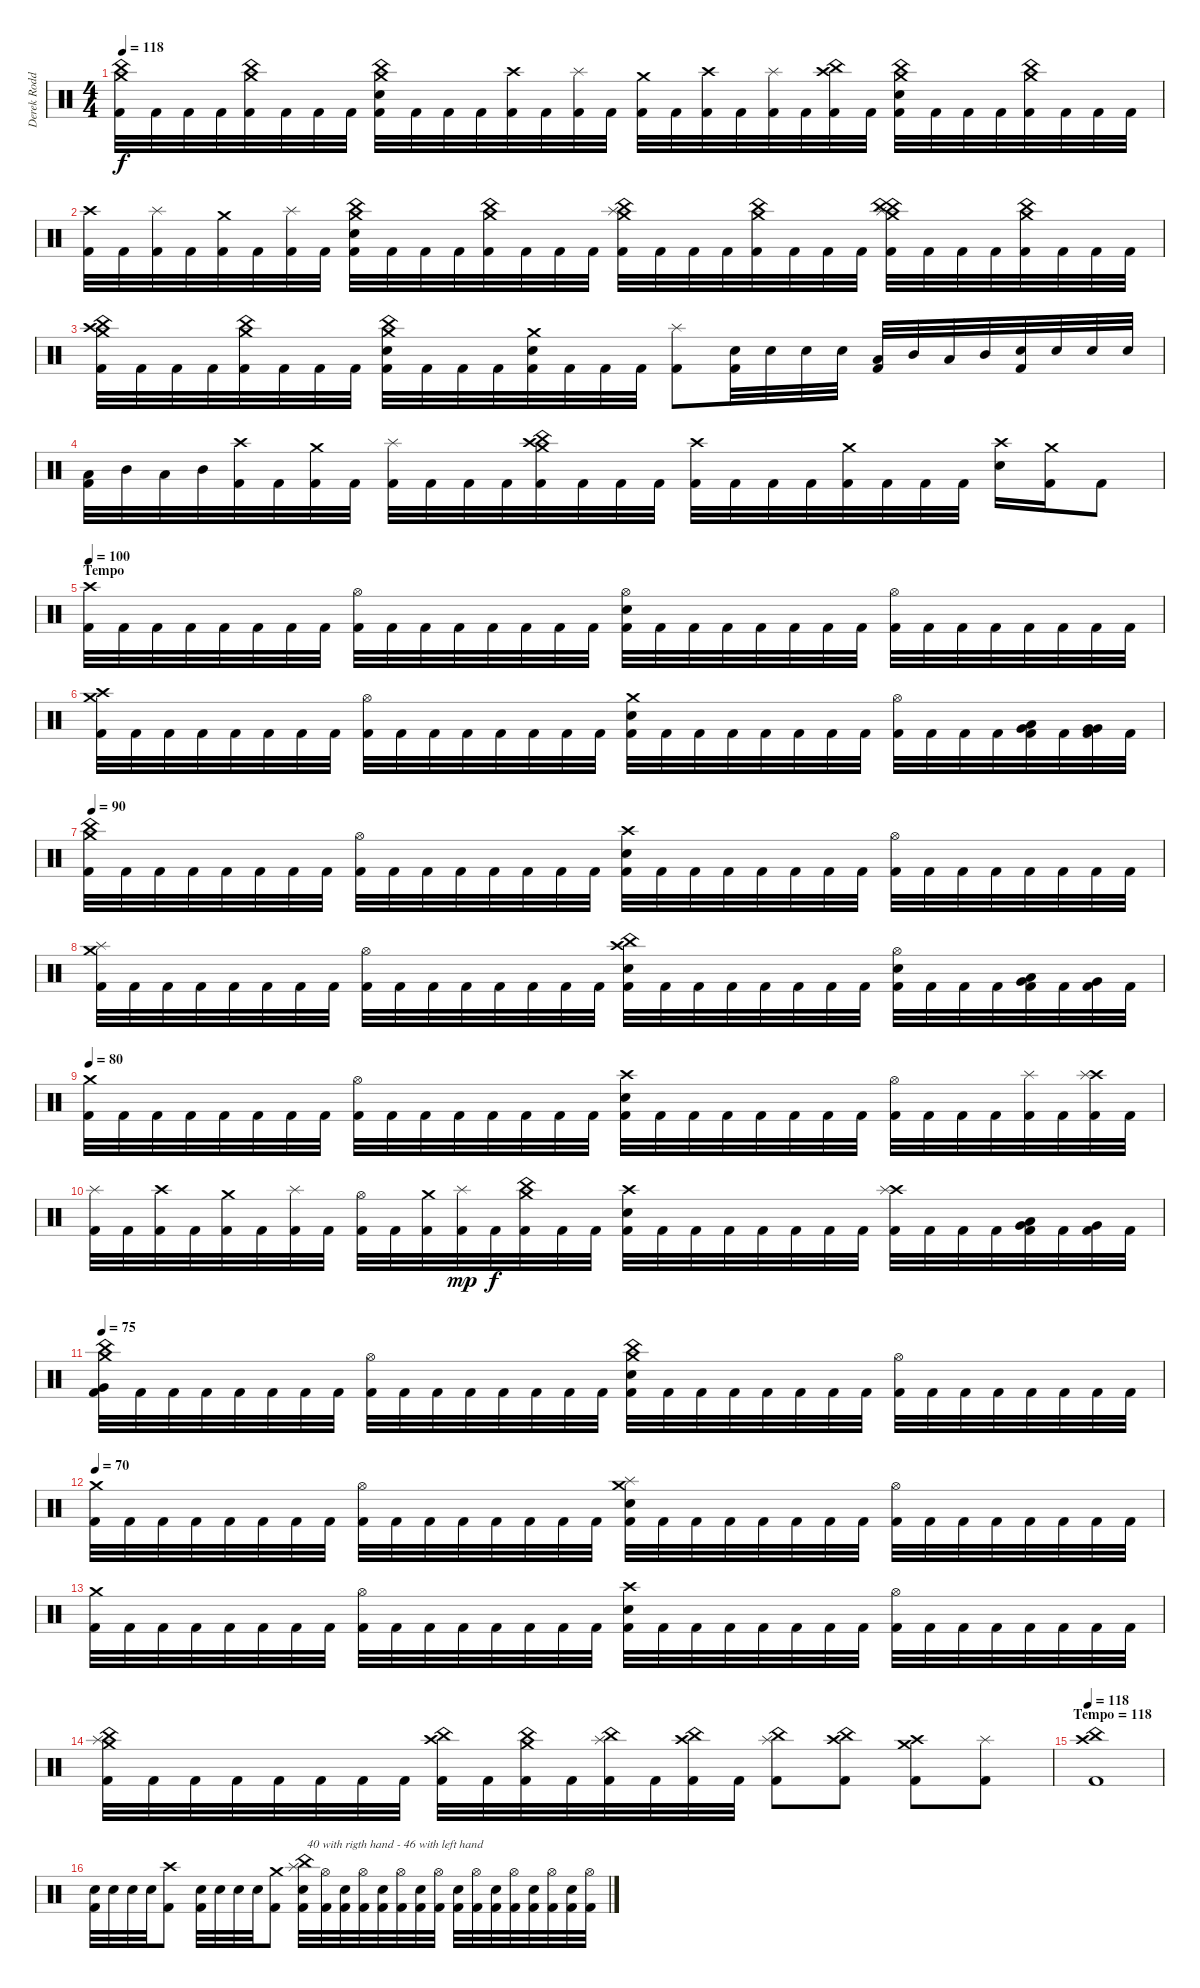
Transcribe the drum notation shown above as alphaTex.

\track ("Derek Roddy" "Derek Rodd") {instrument percussion}
\staff {score}
\articulation defaults
\ts (4 4)
\tempo 118
\clef neutral
\ks c
("Crash medium (hit)" "China (hit)" "Kick (hit) 2").32{dy f} "Kick (hit) 2".32 "Kick (hit) 2".32 "Kick (hit) 2".32 ("Crash medium (hit)" "China (hit)" "Kick (hit) 2").32 "Kick (hit) 2".32 "Kick (hit) 2".32 "Kick (hit) 2".32 ("Crash medium (hit)" "China (hit)" "Electric Snare (hit)" "Kick (hit) 2").32 "Kick (hit) 2".32 "Kick (hit) 2".32 "Kick (hit) 2".32 ("Crash high (hit)" "Kick (hit) 2").32 "Kick (hit) 2".32 ("Splash (hit)" "Kick (hit) 2").32 "Kick (hit) 2".32 ("Crash medium (hit)" "Kick (hit) 2").32 "Kick (hit) 2".32 ("Crash high (hit)" "Kick (hit) 2").32 "Kick (hit) 2".32 ("Splash (hit)" "Kick (hit) 2").32 "Kick (hit) 2".32 ("Crash high (hit)" "China (hit)" "Kick (hit) 2").32 "Kick (hit) 2".32 ("Crash medium (hit)" "China (hit)" "Electric Snare (hit)" "Kick (hit) 2").32 "Kick (hit) 2".32 "Kick (hit) 2".32 "Kick (hit) 2".32 ("Crash medium (hit)" "China (hit)" "Kick (hit) 2").32 "Kick (hit) 2".32 "Kick (hit) 2".32 "Kick (hit) 2".32 |
("Crash high (hit)" "Kick (hit) 2").32 "Kick (hit) 2".32 ("Splash (hit)" "Kick (hit) 2").32 "Kick (hit) 2".32 ("Crash medium (hit)" "Kick (hit) 2").32 "Kick (hit) 2".32 ("Splash (hit)" "Kick (hit) 2").32 "Kick (hit) 2".32 ("Crash medium (hit)" "China (hit)" "Electric Snare (hit)" "Kick (hit) 2").32 "Kick (hit) 2".32 "Kick (hit) 2".32 "Kick (hit) 2".32 ("Crash medium (hit)" "China (hit)" "Kick (hit) 2").32 "Kick (hit) 2".32 "Kick (hit) 2".32 "Kick (hit) 2".32 ("Crash medium (hit)" "China (hit)" "Splash (hit)" "Kick (hit) 2").32 "Kick (hit) 2".32 "Kick (hit) 2".32 "Kick (hit) 2".32 ("Crash medium (hit)" "China (hit)" "Kick (hit) 2").32 "Kick (hit) 2".32 "Kick (hit) 2".32 "Kick (hit) 2".32 ("Crash medium (hit)" "China (hit)" "Splash (hit)" "China (hit)" "Kick (hit) 2").32 "Kick (hit) 2".32 "Kick (hit) 2".32 "Kick (hit) 2".32 ("Crash medium (hit)" "China (hit)" "Kick (hit) 2").32 "Kick (hit) 2".32 "Kick (hit) 2".32 "Kick (hit) 2".32 |
("Crash medium (hit)" "China (hit)" "Crash high (hit)" "Kick (hit) 2").32 "Kick (hit) 2".32 "Kick (hit) 2".32 "Kick (hit) 2".32 ("Crash medium (hit)" "China (hit)" "Kick (hit) 2").32 "Kick (hit) 2".32 "Kick (hit) 2".32 "Kick (hit) 2".32 ("Crash medium (hit)" "China (hit)" "Electric Snare (hit)" "Kick (hit) 2").32 "Kick (hit) 2".32 "Kick (hit) 2".32 "Kick (hit) 2".32 ("Crash medium (hit)" "Electric Snare (hit)" "Kick (hit) 2").32 "Kick (hit) 2".32 "Kick (hit) 2".32 "Kick (hit) 2".32 ("Splash (hit)" "Kick (hit) 2").8 ("Electric Snare (hit)" "Kick (hit) 2").32 "Electric Snare (hit)".32 "Electric Snare (hit)".32 "Electric Snare (hit)".32 ("Low Tom (hit)" "Kick (hit) 2").32 "Mid Tom (hit)".32 "Low Tom (hit)".32 "Mid Tom (hit)".32 ("Electric Snare (hit)" "Kick (hit) 2").32 "Electric Snare (hit)".32 "Electric Snare (hit)".32 "Electric Snare (hit)".32 |
("Low Tom (hit)" "Kick (hit) 2").32 "Mid Tom (hit)".32 "Low Tom (hit)".32 "Mid Tom (hit)".32 ("Crash high (hit)" "Kick (hit) 2").32 "Kick (hit) 2".32 ("Crash medium (hit)" "Kick (hit) 2").32 "Kick (hit) 2".32 ("Splash (hit)" "Kick (hit) 2").32 "Kick (hit) 2".32 "Kick (hit) 2".32 "Kick (hit) 2".32 ("Crash medium (hit)" "China (hit)" "Crash high (hit)" "Kick (hit) 2").32 "Kick (hit) 2".32 "Kick (hit) 2".32 "Kick (hit) 2".32 ("Crash high (hit)" "Kick (hit) 2").32 "Kick (hit) 2".32 "Kick (hit) 2".32 "Kick (hit) 2".32 ("Crash medium (hit)" "Kick (hit) 2").32 "Kick (hit) 2".32 "Kick (hit) 2".32 "Kick (hit) 2".32 ("Crash high (hit)" "Electric Snare (hit)").16 ("Crash medium (hit)" "Kick (hit) 2").16 "Kick (hit) 2".8 |
\section ("" "Tempo")
\tempo 100
("Crash high (hit)" "Kick (hit) 2").32 "Kick (hit) 2".32 "Kick (hit) 2".32 "Kick (hit) 2".32 "Kick (hit) 2".32 "Kick (hit) 2".32 "Kick (hit) 2".32 "Kick (hit) 2".32 ("Hi-Hat (open)" "Kick (hit) 2").32 "Kick (hit) 2".32 "Kick (hit) 2".32 "Kick (hit) 2".32 "Kick (hit) 2".32 "Kick (hit) 2".32 "Kick (hit) 2".32 "Kick (hit) 2".32 ("Hi-Hat (open)" "Electric Snare (hit)" "Kick (hit) 2").32 "Kick (hit) 2".32 "Kick (hit) 2".32 "Kick (hit) 2".32 "Kick (hit) 2".32 "Kick (hit) 2".32 "Kick (hit) 2".32 "Kick (hit) 2".32 ("Hi-Hat (open)" "Kick (hit) 2").32 "Kick (hit) 2".32 "Kick (hit) 2".32 "Kick (hit) 2".32 "Kick (hit) 2".32 "Kick (hit) 2".32 "Kick (hit) 2".32 "Kick (hit) 2".32 |
("Crash high (hit)" "Crash medium (hit)" "Kick (hit) 2").32 "Kick (hit) 2".32 "Kick (hit) 2".32 "Kick (hit) 2".32 "Kick (hit) 2".32 "Kick (hit) 2".32 "Kick (hit) 2".32 "Kick (hit) 2".32 ("Hi-Hat (open)" "Kick (hit) 2").32 "Kick (hit) 2".32 "Kick (hit) 2".32 "Kick (hit) 2".32 "Kick (hit) 2".32 "Kick (hit) 2".32 "Kick (hit) 2".32 "Kick (hit) 2".32 ("Crash medium (hit)" "Electric Snare (hit)" "Kick (hit) 2").32 "Kick (hit) 2".32 "Kick (hit) 2".32 "Kick (hit) 2".32 "Kick (hit) 2".32 "Kick (hit) 2".32 "Kick (hit) 2".32 "Kick (hit) 2".32 ("Hi-Hat (open)" "Kick (hit) 2").32 "Kick (hit) 2".32 "Kick (hit) 2".32 "Kick (hit) 2".32 ("Low Tom (hit)" "Very Low Tom (hit)" "Kick (hit) 2").32 "Kick (hit) 2".32 ("Very Low Tom (hit)" "Very Low Tom (hit)" "Kick (hit) 2").32 "Kick (hit) 2".32 |
\tempo 90
("Crash medium (hit)" "China (hit)" "Kick (hit) 2").32 "Kick (hit) 2".32 "Kick (hit) 2".32 "Kick (hit) 2".32 "Kick (hit) 2".32 "Kick (hit) 2".32 "Kick (hit) 2".32 "Kick (hit) 2".32 ("Hi-Hat (open)" "Kick (hit) 2").32 "Kick (hit) 2".32 "Kick (hit) 2".32 "Kick (hit) 2".32 "Kick (hit) 2".32 "Kick (hit) 2".32 "Kick (hit) 2".32 "Kick (hit) 2".32 ("Crash high (hit)" "Electric Snare (hit)" "Kick (hit) 2").32 "Kick (hit) 2".32 "Kick (hit) 2".32 "Kick (hit) 2".32 "Kick (hit) 2".32 "Kick (hit) 2".32 "Kick (hit) 2".32 "Kick (hit) 2".32 ("Hi-Hat (open)" "Kick (hit) 2").32 "Kick (hit) 2".32 "Kick (hit) 2".32 "Kick (hit) 2".32 "Kick (hit) 2".32 "Kick (hit) 2".32 "Kick (hit) 2".32 "Kick (hit) 2".32 |
("Crash medium (hit)" "Splash (hit)" "Kick (hit) 2").32 "Kick (hit) 2".32 "Kick (hit) 2".32 "Kick (hit) 2".32 "Kick (hit) 2".32 "Kick (hit) 2".32 "Kick (hit) 2".32 "Kick (hit) 2".32 ("Hi-Hat (open)" "Kick (hit) 2").32 "Kick (hit) 2".32 "Kick (hit) 2".32 "Kick (hit) 2".32 "Kick (hit) 2".32 "Kick (hit) 2".32 "Kick (hit) 2".32 "Kick (hit) 2".32 ("Crash high (hit)" "China (hit)" "Electric Snare (hit)" "Kick (hit) 2").32 "Kick (hit) 2".32 "Kick (hit) 2".32 "Kick (hit) 2".32 "Kick (hit) 2".32 "Kick (hit) 2".32 "Kick (hit) 2".32 "Kick (hit) 2".32 ("Hi-Hat (open)" "Electric Snare (hit)" "Kick (hit) 2").32 "Kick (hit) 2".32 "Kick (hit) 2".32 "Kick (hit) 2".32 ("Low Tom (hit)" "Very Low Tom (hit)" "Kick (hit) 2").32 "Kick (hit) 2".32 ("Very Low Tom (hit)" "Kick (hit) 2").32 "Kick (hit) 2".32 |
\tempo 80
("Crash medium (hit)" "Kick (hit) 2").32 "Kick (hit) 2".32 "Kick (hit) 2".32 "Kick (hit) 2".32 "Kick (hit) 2".32 "Kick (hit) 2".32 "Kick (hit) 2".32 "Kick (hit) 2".32 ("Hi-Hat (open)" "Kick (hit) 2").32 "Kick (hit) 2".32 "Kick (hit) 2".32 "Kick (hit) 2".32 "Kick (hit) 2".32 "Kick (hit) 2".32 "Kick (hit) 2".32 "Kick (hit) 2".32 ("Crash high (hit)" "Electric Snare (hit)" "Kick (hit) 2").32 "Kick (hit) 2".32 "Kick (hit) 2".32 "Kick (hit) 2".32 "Kick (hit) 2".32 "Kick (hit) 2".32 "Kick (hit) 2".32 "Kick (hit) 2".32 ("Hi-Hat (open)" "Kick (hit) 2").32 "Kick (hit) 2".32 "Kick (hit) 2".32 "Kick (hit) 2".32 ("Splash (hit)" "Kick (hit) 2").32 "Kick (hit) 2".32 ("Crash high (hit)" "Splash (hit)" "Kick (hit) 2").32 "Kick (hit) 2".32 |
("Splash (hit)" "Kick (hit) 2").32 "Kick (hit) 2".32 ("Crash high (hit)" "Kick (hit) 2").32 "Kick (hit) 2".32 ("Crash medium (hit)" "Kick (hit) 2").32 "Kick (hit) 2".32 ("Splash (hit)" "Kick (hit) 2").32 "Kick (hit) 2".32 ("Hi-Hat (open)" "Kick (hit) 2").32 "Kick (hit) 2".32 ("Crash medium (hit)" "Kick (hit) 2").32 ("Splash (hit)" "Kick (hit) 2").32{dy mp} "Kick (hit) 2".32{dy f} ("Crash medium (hit)" "China (hit)" "Kick (hit) 2").32 "Kick (hit) 2".32 "Kick (hit) 2".32 ("Crash high (hit)" "Electric Snare (hit)" "Kick (hit) 2").32 "Kick (hit) 2".32 "Kick (hit) 2".32 "Kick (hit) 2".32 "Kick (hit) 2".32 "Kick (hit) 2".32 "Kick (hit) 2".32 "Kick (hit) 2".32 ("Crash high (hit)" "Splash (hit)" "Kick (hit) 2").32 "Kick (hit) 2".32 "Kick (hit) 2".32 "Kick (hit) 2".32 ("Low Tom (hit)" "Very Low Tom (hit)" "Kick (hit) 2").32 "Kick (hit) 2".32 ("Very Low Tom (hit)" "Kick (hit) 2").32 "Kick (hit) 2".32 |
\tempo 75
("Crash medium (hit)" "China (hit)" "Very Low Tom (hit)" "Kick (hit) 2").32 "Kick (hit) 2".32 "Kick (hit) 2".32 "Kick (hit) 2".32 "Kick (hit) 2".32 "Kick (hit) 2".32 "Kick (hit) 2".32 "Kick (hit) 2".32 ("Hi-Hat (open)" "Kick (hit) 2").32 "Kick (hit) 2".32 "Kick (hit) 2".32 "Kick (hit) 2".32 "Kick (hit) 2".32 "Kick (hit) 2".32 "Kick (hit) 2".32 "Kick (hit) 2".32 ("Crash medium (hit)" "China (hit)" "Electric Snare (hit)" "Kick (hit) 2").32 "Kick (hit) 2".32 "Kick (hit) 2".32 "Kick (hit) 2".32 "Kick (hit) 2".32 "Kick (hit) 2".32 "Kick (hit) 2".32 "Kick (hit) 2".32 ("Hi-Hat (open)" "Kick (hit) 2").32 "Kick (hit) 2".32 "Kick (hit) 2".32 "Kick (hit) 2".32 "Kick (hit) 2".32 "Kick (hit) 2".32 "Kick (hit) 2".32 "Kick (hit) 2".32 |
\tempo 70
("Crash medium (hit)" "Kick (hit) 2").32 "Kick (hit) 2".32 "Kick (hit) 2".32 "Kick (hit) 2".32 "Kick (hit) 2".32 "Kick (hit) 2".32 "Kick (hit) 2".32 "Kick (hit) 2".32 ("Hi-Hat (open)" "Kick (hit) 2").32 "Kick (hit) 2".32 "Kick (hit) 2".32 "Kick (hit) 2".32 "Kick (hit) 2".32 "Kick (hit) 2".32 "Kick (hit) 2".32 "Kick (hit) 2".32 ("Crash medium (hit)" "Splash (hit)" "Electric Snare (hit)" "Kick (hit) 2").32 "Kick (hit) 2".32 "Kick (hit) 2".32 "Kick (hit) 2".32 "Kick (hit) 2".32 "Kick (hit) 2".32 "Kick (hit) 2".32 "Kick (hit) 2".32 ("Hi-Hat (open)" "Kick (hit) 2").32 "Kick (hit) 2".32 "Kick (hit) 2".32 "Kick (hit) 2".32 "Kick (hit) 2".32 "Kick (hit) 2".32 "Kick (hit) 2".32 "Kick (hit) 2".32 |
("Crash medium (hit)" "Kick (hit) 2").32 "Kick (hit) 2".32 "Kick (hit) 2".32 "Kick (hit) 2".32 "Kick (hit) 2".32 "Kick (hit) 2".32 "Kick (hit) 2".32 "Kick (hit) 2".32 ("Hi-Hat (open)" "Kick (hit) 2").32 "Kick (hit) 2".32 "Kick (hit) 2".32 "Kick (hit) 2".32 "Kick (hit) 2".32 "Kick (hit) 2".32 "Kick (hit) 2".32 "Kick (hit) 2".32 ("Crash high (hit)" "Electric Snare (hit)" "Kick (hit) 2").32 "Kick (hit) 2".32 "Kick (hit) 2".32 "Kick (hit) 2".32 "Kick (hit) 2".32 "Kick (hit) 2".32 "Kick (hit) 2".32 "Kick (hit) 2".32 ("Hi-Hat (open)" "Kick (hit) 2").32 "Kick (hit) 2".32 "Kick (hit) 2".32 "Kick (hit) 2".32 "Kick (hit) 2".32 "Kick (hit) 2".32 "Kick (hit) 2".32 "Kick (hit) 2".32 |
("Crash medium (hit)" "China (hit)" "Splash (hit)" "Kick (hit) 2").32 "Kick (hit) 2".32 "Kick (hit) 2".32 "Kick (hit) 2".32 "Kick (hit) 2".32 "Kick (hit) 2".32 "Kick (hit) 2".32 "Kick (hit) 2".32 ("Crash high (hit)" "China (hit)" "Kick (hit) 2").32 "Kick (hit) 2".32 ("Crash medium (hit)" "China (hit)" "Kick (hit) 2").32 "Kick (hit) 2".32 ("Splash (hit)" "China (hit)" "Kick (hit) 2").32 "Kick (hit) 2".32 ("Crash high (hit)" "China (hit)" "Kick (hit) 2").32 "Kick (hit) 2".32 ("Splash (hit)" "China (hit)" "Kick (hit) 2").8 ("Crash high (hit)" "China (hit)" "Kick (hit) 2").8 ("Crash medium (hit)" "Crash high (hit)" "Kick (hit) 2").8 ("Splash (hit)" "Kick (hit) 2").8 |
\section ("" "Tempo = 118")
\tempo 118
("Crash high (hit)" "China (hit)" "Kick (hit) 2").1 |
("Electric Snare (hit)" "Kick (hit) 2").32 "Electric Snare (hit)".32 "Electric Snare (hit)".32 "Electric Snare (hit)".32 ("Crash high (hit)" "Kick (hit) 2").8 ("Electric Snare (hit)" "Kick (hit) 2").32 "Electric Snare (hit)".32 "Electric Snare (hit)".32 "Electric Snare (hit)".32 ("Crash medium (hit)" "Kick (hit) 2").8 ("Splash (hit)" "China (hit)" "Electric Snare (hit)" "Kick (hit) 2").32{txt "40 with rigth hand - 46 with left hand"} ("Hi-Hat (open)" "Kick (hit) 2").32 ("Electric Snare (hit)" "Kick (hit) 2").32 ("Hi-Hat (open)" "Kick (hit) 2").32 ("Electric Snare (hit)" "Kick (hit) 2").32 ("Hi-Hat (open)" "Kick (hit) 2").32 ("Electric Snare (hit)" "Kick (hit) 2").32 ("Hi-Hat (open)" "Kick (hit) 2").32 ("Electric Snare (hit)" "Kick (hit) 2").32 ("Hi-Hat (open)" "Kick (hit) 2").32 ("Electric Snare (hit)" "Kick (hit) 2").32 ("Hi-Hat (open)" "Kick (hit) 2").32 ("Electric Snare (hit)" "Kick (hit) 2").32 ("Hi-Hat (open)" "Kick (hit) 2").32 ("Electric Snare (hit)" "Kick (hit) 2").32 ("Hi-Hat (open)" "Kick (hit) 2").32
